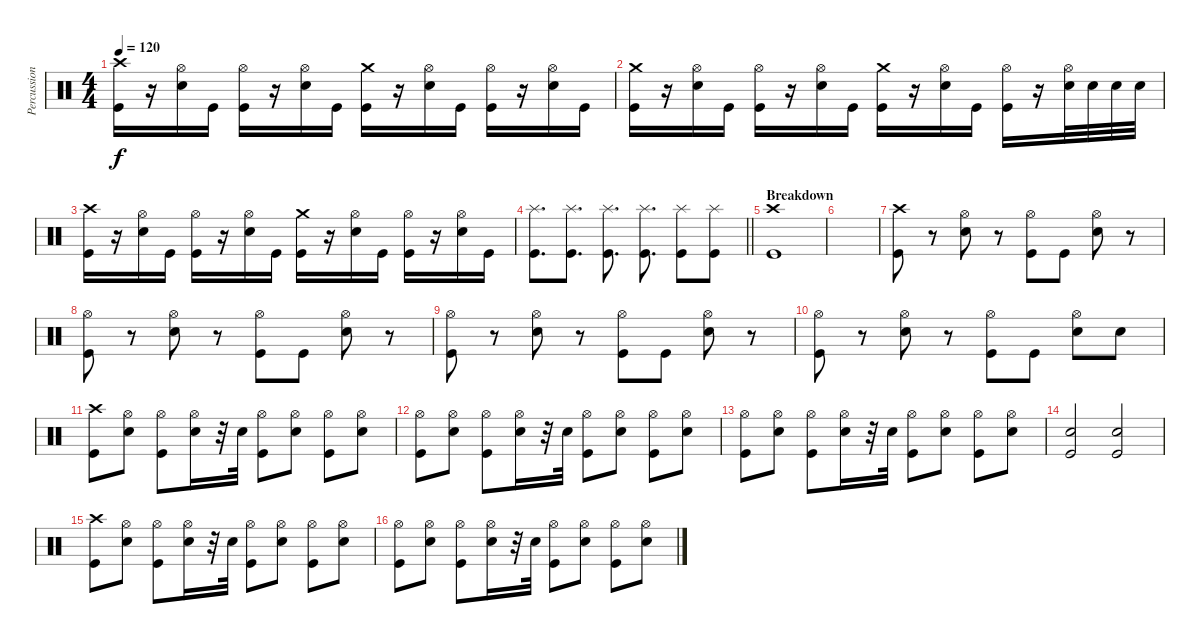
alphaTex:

\track ("Percussion" "Percussion") {instrument percussion}
\staff {score}
\articulation defaults
\ts (4 4)
\tempo 120
\clef neutral
\ks c
("Crash high (hit)" "Kick (hit)").16{dy f} r.16 ("Hi-Hat (open)" "Electric Snare (hit)").16 "Kick (hit)".16 ("Hi-Hat (open)" "Kick (hit)").16 r.16 ("Hi-Hat (open)" "Electric Snare (hit)").16 "Kick (hit)".16 ("Crash medium (hit)" "Kick (hit)").16 r.16 ("Hi-Hat (open)" "Electric Snare (hit)").16 "Kick (hit)".16 ("Hi-Hat (open)" "Kick (hit)").16 r.16 ("Hi-Hat (open)" "Electric Snare (hit)").16 "Kick (hit)".16 |
("Crash medium (hit)" "Kick (hit)").16 r.16 ("Hi-Hat (open)" "Electric Snare (hit)").16 "Kick (hit)".16 ("Hi-Hat (open)" "Kick (hit)").16 r.16 ("Hi-Hat (open)" "Electric Snare (hit)").16 "Kick (hit)".16 ("Crash medium (hit)" "Kick (hit)").16 r.16 ("Hi-Hat (open)" "Electric Snare (hit)").16 "Kick (hit)".16 ("Hi-Hat (open)" "Kick (hit)").16 r.16 ("Hi-Hat (open)" "Electric Snare (hit)").32 "Electric Snare (hit)".32 "Electric Snare (hit)".32 "Electric Snare (hit)".32 |
("Crash high (hit)" "Kick (hit)").16 r.16 ("Hi-Hat (open)" "Electric Snare (hit)").16 "Kick (hit)".16 ("Hi-Hat (open)" "Kick (hit)").16 r.16 ("Hi-Hat (open)" "Electric Snare (hit)").16 "Kick (hit)".16 ("Crash medium (hit)" "Kick (hit)").16 r.16 ("Hi-Hat (open)" "Electric Snare (hit)").16 "Kick (hit)".16 ("Hi-Hat (open)" "Kick (hit)").16 r.16 ("Hi-Hat (open)" "Electric Snare (hit)").16 "Kick (hit)".16 |
\barLineRight lightlight
("Splash (hit)" "Kick (hit)").8{d} ("Splash (hit)" "Kick (hit)").8{d} ("Splash (hit)" "Kick (hit)").8{d} ("Splash (hit)" "Kick (hit)").8{d} ("Splash (hit)" "Kick (hit)").8 ("Splash (hit)" "Kick (hit)").8 |
\section ("" "Breakdown")
("Crash high (hit)" "Kick (hit)").1 |
|
("Crash high (hit)" "Kick (hit)").8 r.8 ("Hi-Hat (open)" "Electric Snare (hit)").8 r.8 ("Hi-Hat (open)" "Kick (hit)").8 "Kick (hit)".8 ("Hi-Hat (open)" "Electric Snare (hit)").8 r.8 |
("Hi-Hat (open)" "Kick (hit)").8 r.8 ("Hi-Hat (open)" "Electric Snare (hit)").8 r.8 ("Hi-Hat (open)" "Kick (hit)").8 "Kick (hit)".8 ("Hi-Hat (open)" "Electric Snare (hit)").8 r.8 |
("Hi-Hat (open)" "Kick (hit)").8 r.8 ("Hi-Hat (open)" "Electric Snare (hit)").8 r.8 ("Hi-Hat (open)" "Kick (hit)").8 "Kick (hit)".8 ("Hi-Hat (open)" "Electric Snare (hit)").8 r.8 |
("Hi-Hat (open)" "Kick (hit)").8 r.8 ("Hi-Hat (open)" "Electric Snare (hit)").8 r.8 ("Hi-Hat (open)" "Kick (hit)").8 "Kick (hit)".8 ("Hi-Hat (open)" "Electric Snare (hit)").8 "Electric Snare (hit)".8 |
("Crash high (hit)" "Kick (hit)").8 ("Hi-Hat (open)" "Electric Snare (hit)").8 ("Hi-Hat (open)" "Kick (hit)").8 ("Hi-Hat (open)" "Electric Snare (hit)").16 r.32 "Electric Snare (hit)".32 ("Hi-Hat (open)" "Kick (hit)").8 ("Hi-Hat (open)" "Electric Snare (hit)").8 ("Hi-Hat (open)" "Kick (hit)").8 ("Hi-Hat (open)" "Electric Snare (hit)").8 |
("Hi-Hat (open)" "Kick (hit)").8 ("Hi-Hat (open)" "Electric Snare (hit)").8 ("Hi-Hat (open)" "Kick (hit)").8 ("Hi-Hat (open)" "Electric Snare (hit)").16 r.32 "Electric Snare (hit)".32 ("Hi-Hat (open)" "Kick (hit)").8 ("Hi-Hat (open)" "Electric Snare (hit)").8 ("Hi-Hat (open)" "Kick (hit)").8 ("Hi-Hat (open)" "Electric Snare (hit)").8 |
("Hi-Hat (open)" "Kick (hit)").8 ("Hi-Hat (open)" "Electric Snare (hit)").8 ("Hi-Hat (open)" "Kick (hit)").8 ("Hi-Hat (open)" "Electric Snare (hit)").16 r.32 "Electric Snare (hit)".32 ("Hi-Hat (open)" "Kick (hit)").8 ("Hi-Hat (open)" "Electric Snare (hit)").8 ("Hi-Hat (open)" "Kick (hit)").8 ("Hi-Hat (open)" "Electric Snare (hit)").8 |
("Electric Snare (hit)" "Kick (hit)").2 ("Electric Snare (hit)" "Kick (hit)").2 |
("Crash high (hit)" "Kick (hit)").8 ("Hi-Hat (open)" "Electric Snare (hit)").8 ("Hi-Hat (open)" "Kick (hit)").8 ("Hi-Hat (open)" "Electric Snare (hit)").16 r.32 "Electric Snare (hit)".32 ("Hi-Hat (open)" "Kick (hit)").8 ("Hi-Hat (open)" "Electric Snare (hit)").8 ("Hi-Hat (open)" "Kick (hit)").8 ("Hi-Hat (open)" "Electric Snare (hit)").8 |
("Hi-Hat (open)" "Kick (hit)").8 ("Hi-Hat (open)" "Electric Snare (hit)").8 ("Hi-Hat (open)" "Kick (hit)").8 ("Hi-Hat (open)" "Electric Snare (hit)").16 r.32 "Electric Snare (hit)".32 ("Hi-Hat (open)" "Kick (hit)").8 ("Hi-Hat (open)" "Electric Snare (hit)").8 ("Hi-Hat (open)" "Kick (hit)").8 ("Hi-Hat (open)" "Electric Snare (hit)").8
